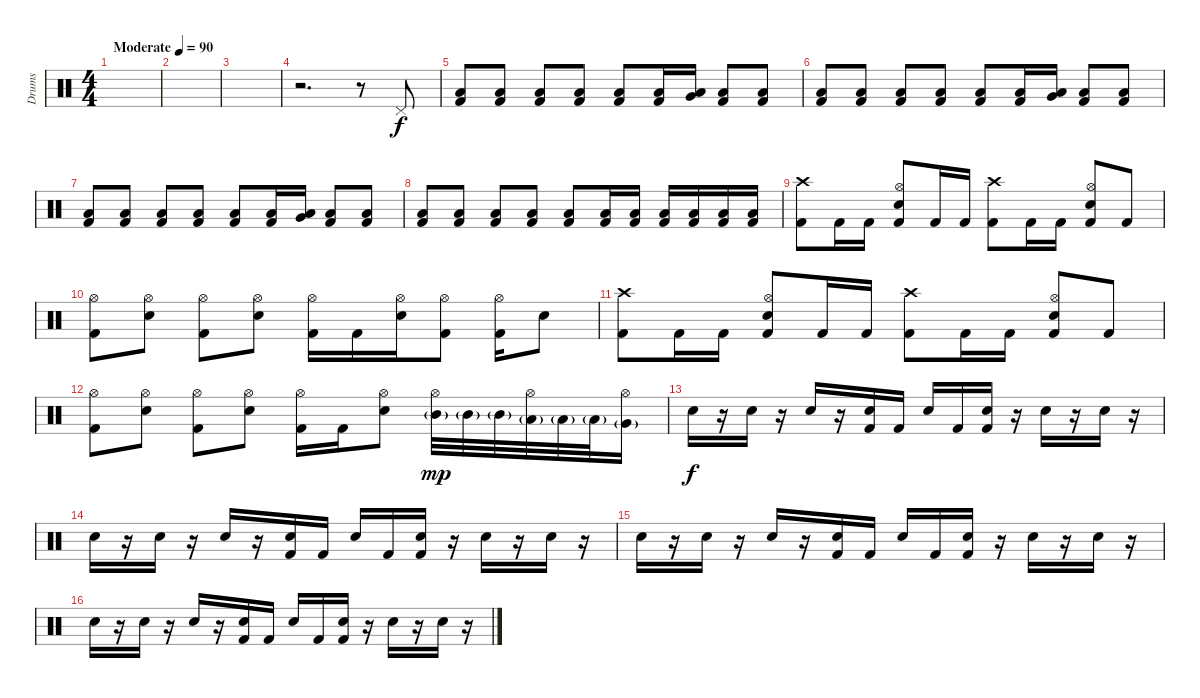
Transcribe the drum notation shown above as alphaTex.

\track ("Drums" "Drums") {instrument percussion}
\staff {score}
\articulation defaults
\ts (4 4)
\tempo (90 "Moderate")
\clef neutral
\ks c
|
|
|
r.2{d} r.8 "Pedal Hi-Hat (hit)".8 |
("Low Tom (hit)" "Kick (hit) 2").8 ("Low Tom (hit)" "Kick (hit) 2").8 ("Low Tom (hit)" "Kick (hit) 2").8 ("Low Tom (hit)" "Kick (hit) 2").8 ("Low Tom (hit)" "Kick (hit) 2").8 ("Low Tom (hit)" "Kick (hit) 2").16 ("Very Low Tom (hit)" "Low Tom (hit)").16 ("Low Tom (hit)" "Kick (hit) 2").8 ("Low Tom (hit)" "Kick (hit) 2").8 |
("Low Tom (hit)" "Kick (hit) 2").8 ("Low Tom (hit)" "Kick (hit) 2").8 ("Low Tom (hit)" "Kick (hit) 2").8 ("Low Tom (hit)" "Kick (hit) 2").8 ("Low Tom (hit)" "Kick (hit) 2").8 ("Low Tom (hit)" "Kick (hit) 2").16 ("Very Low Tom (hit)" "Low Tom (hit)").16 ("Low Tom (hit)" "Kick (hit) 2").8 ("Low Tom (hit)" "Kick (hit) 2").8 |
("Low Tom (hit)" "Kick (hit) 2").8 ("Low Tom (hit)" "Kick (hit) 2").8 ("Low Tom (hit)" "Kick (hit) 2").8 ("Low Tom (hit)" "Kick (hit) 2").8 ("Low Tom (hit)" "Kick (hit) 2").8 ("Low Tom (hit)" "Kick (hit) 2").16 ("Very Low Tom (hit)" "Low Tom (hit)").16 ("Low Tom (hit)" "Kick (hit) 2").8 ("Low Tom (hit)" "Kick (hit) 2").8 |
("Low Tom (hit)" "Kick (hit) 2").8 ("Low Tom (hit)" "Kick (hit) 2").8 ("Low Tom (hit)" "Kick (hit) 2").8 ("Low Tom (hit)" "Kick (hit) 2").8 ("Low Tom (hit)" "Kick (hit) 2").8 ("Low Tom (hit)" "Kick (hit) 2").16 ("Low Tom (hit)" "Kick (hit) 2").16 ("Low Tom (hit)" "Kick (hit) 2").16 ("Low Tom (hit)" "Kick (hit) 2").16 ("Low Tom (hit)" "Kick (hit) 2").16 ("Low Tom (hit)" "Kick (hit) 2").16 |
("Crash high (hit)" "Kick (hit) 2").8 "Kick (hit) 2".16 "Kick (hit) 2".16 ("Hi-Hat (open)" "Snare (hit) 2" "Kick (hit) 2").8 "Kick (hit) 2".16 "Kick (hit) 2".16 ("Crash high (hit)" "Kick (hit) 2").8 "Kick (hit) 2".16 "Kick (hit) 2".16 ("Hi-Hat (open)" "Snare (hit) 2" "Kick (hit) 2").8 "Kick (hit) 2".8 |
("Hi-Hat (open)" "Kick (hit) 2").8 ("Hi-Hat (open)" "Snare (hit) 2").8 ("Hi-Hat (open)" "Kick (hit) 2").8 ("Hi-Hat (open)" "Snare (hit) 2").8 ("Hi-Hat (open)" "Kick (hit) 2").16 "Kick (hit) 2".16 ("Hi-Hat (open)" "Snare (hit) 2").16 ("Hi-Hat (open)" "Kick (hit) 2").8 ("Hi-Hat (open)" "Kick (hit) 2").16 "Snare (hit) 2".8 |
("Crash high (hit)" "Kick (hit) 2").8 "Kick (hit) 2".16 "Kick (hit) 2".16 ("Hi-Hat (open)" "Snare (hit) 2" "Kick (hit) 2").8 "Kick (hit) 2".16 "Kick (hit) 2".16 ("Crash high (hit)" "Kick (hit) 2").8 "Kick (hit) 2".16 "Kick (hit) 2".16 ("Hi-Hat (open)" "Snare (hit) 2" "Kick (hit) 2").8 "Kick (hit) 2".8 |
("Hi-Hat (open)" "Kick (hit) 2").8 ("Hi-Hat (open)" "Snare (hit) 2").8 ("Hi-Hat (open)" "Kick (hit) 2").8 ("Hi-Hat (open)" "Snare (hit) 2").8 ("Hi-Hat (open)" "Kick (hit) 2").16 "Kick (hit) 2".16 ("Hi-Hat (open)" "Snare (hit) 2").8 ("Hi-Hat (open)" "Mid Tom (hit)"{g}).32{dy mp} "Mid Tom (hit)"{g}.32 "Mid Tom (hit)"{g}.32 ("Hi-Hat (open)" "Low Tom (hit)"{g}).32 "Low Tom (hit)"{g}.32 "Low Tom (hit)"{g}.32 ("Hi-Hat (open)" "Very Low Tom (hit)"{g}).16 |
"Snare (hit) 2".16{dy f} r.16 "Snare (hit) 2".16 r.16 "Snare (hit) 2".16 r.16 ("Snare (hit) 2" "Kick (hit) 2").16 "Kick (hit) 2".16 "Snare (hit) 2".16 "Kick (hit) 2".16 ("Snare (hit) 2" "Kick (hit) 2").16 r.16 "Snare (hit) 2".16 r.16 "Snare (hit) 2".16 r.16 |
"Snare (hit) 2".16 r.16 "Snare (hit) 2".16 r.16 "Snare (hit) 2".16 r.16 ("Snare (hit) 2" "Kick (hit) 2").16 "Kick (hit) 2".16 "Snare (hit) 2".16 "Kick (hit) 2".16 ("Snare (hit) 2" "Kick (hit) 2").16 r.16 "Snare (hit) 2".16 r.16 "Snare (hit) 2".16 r.16 |
"Snare (hit) 2".16 r.16 "Snare (hit) 2".16 r.16 "Snare (hit) 2".16 r.16 ("Snare (hit) 2" "Kick (hit) 2").16 "Kick (hit) 2".16 "Snare (hit) 2".16 "Kick (hit) 2".16 ("Snare (hit) 2" "Kick (hit) 2").16 r.16 "Snare (hit) 2".16 r.16 "Snare (hit) 2".16 r.16 |
"Snare (hit) 2".16 r.16 "Snare (hit) 2".16 r.16 "Snare (hit) 2".16 r.16 ("Snare (hit) 2" "Kick (hit) 2").16 "Kick (hit) 2".16 "Snare (hit) 2".16 "Kick (hit) 2".16 ("Snare (hit) 2" "Kick (hit) 2").16 r.16 "Snare (hit) 2".16 r.16 "Snare (hit) 2".16 r.16
